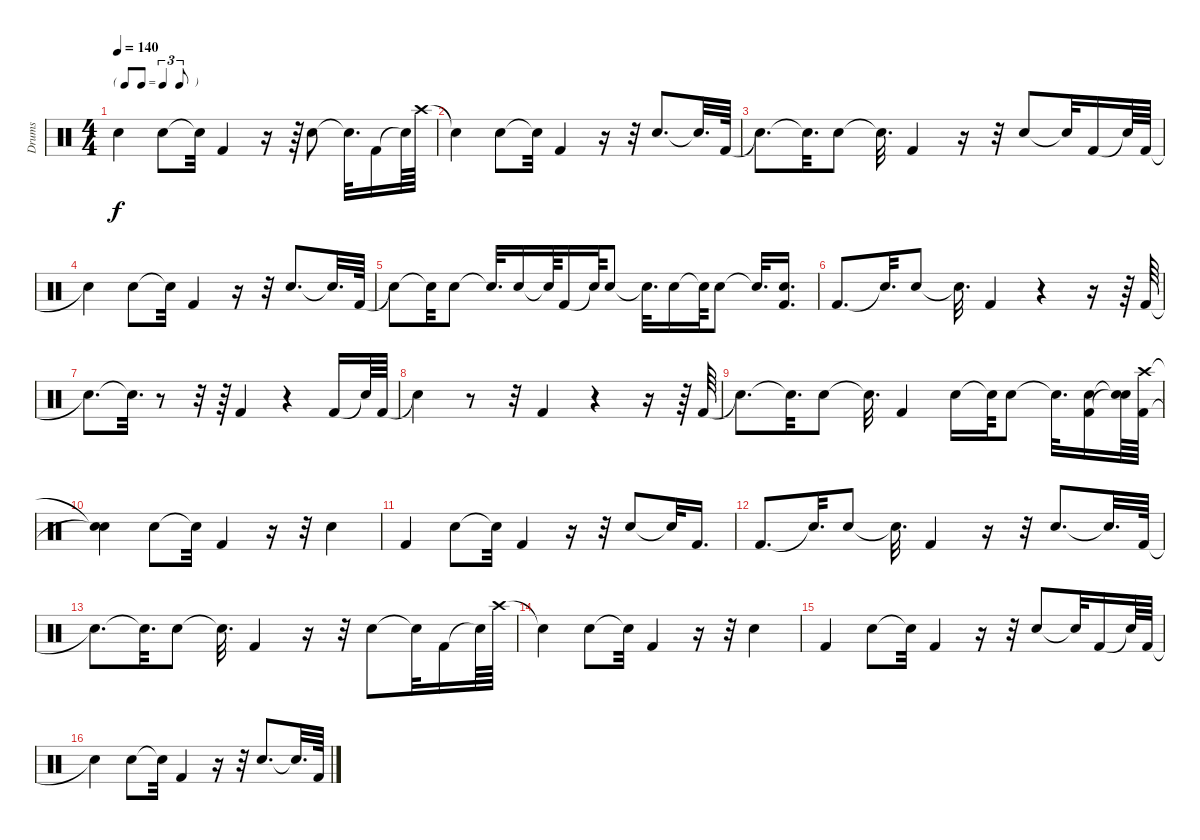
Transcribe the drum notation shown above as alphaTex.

\track ("Drums" "Drums") {instrument percussion}
\staff {score}
\articulation defaults
\ts (4 4)
\tf triplet8th
\tempo 140
\clef neutral
\ks c "Snare (hit)"{t}.4{dy f} "Snare (hit) 2".8 "Snare (hit)"{t}.32 "Kick (hit) 2".4
r.16 r.64 "Snare (hit) 2".8 "Snare (hit)"{t}.32{d} "Kick (hit) 2".16 "Snare (hit)"{t}.64 "Crash high (hit)".64 |
"Snare (hit)"{t}.4 "Snare (hit) 2".8 "Snare (hit)"{t}.32 "Kick (hit) 2".4 r.16 r.32 "Snare (hit) 2".8{d} "Snare (hit)"{t}.32{d} "Kick (hit) 2".64 |
"Snare (hit)"{t}.8{d} "Snare (hit)"{t}.32{d} "Snare (hit) 2".8 "Snare (hit)"{t}.32{d} "Kick (hit) 2".4 r.16 r.32 "Snare (hit) 2".8 "Snare (hit)"{t}.32 "Kick (hit) 2".16 "Snare (hit)"{t}.64 "Kick (hit) 2".64 |
"Snare (hit)"{t}.4 "Snare (hit) 2".8 "Snare (hit)"{t}.32 "Kick (hit) 2".4 r.16 r.32 "Snare (hit) 2".8{d} "Snare (hit)"{t}.32{d} "Kick (hit) 2".64 |
"Snare (hit)"{t}.8 "Snare (hit)"{t}.32 "Snare (hit) 2".8 "Snare (hit)"{t}.32{d} "Snare (hit) 2".16 "Snare (hit)"{t}.64 "Kick (hit) 2".16 "Snare (hit)"{t}.64 "Snare (hit) 2".8 "Snare (hit)"{t}.32{d} "Snare (hit) 2".16 "Snare (hit)"{t}.64 "Snare (hit) 2".8 "Snare (hit)"{t}.32{d} ("Kick (hit) 2" "Snare (hit) 2").16{d} |
"Kick (hit) 2".8{d} "Snare (hit)"{t}.32{d} "Snare (hit) 2".8 "Snare (hit)"{t}.32{d} "Kick (hit) 2".4 r.4 r.16 r.64 "Kick (hit) 2".64 |
"Snare (hit)"{t}.8{d} "Snare (hit)"{t}.32{d} r.8 r.32 r.64 "Kick (hit) 2".4 r.4 "Kick (hit) 2".16 "Snare (hit)"{t}.64 "Kick (hit) 2".64 |
"Snare (hit)"{t}.4 r.8 r.32 "Kick (hit) 2".4 r.4 r.16 r.64 "Kick (hit) 2".64 |
"Snare (hit)"{t}.8{d} "Snare (hit)"{t}.32{d} "Snare (hit) 2".8 "Snare (hit)"{t}.32{d} "Kick (hit) 2".4 "Snare (hit) 2".16 "Snare (hit)"{t}.64 "Snare (hit) 2".8 "Snare (hit)"{t}.32{d} ("Kick (hit) 2" "Snare (hit) 2").16 ("Snare (hit)"{t} "Snare (hit)"{t}).64 ("Kick (hit) 2" "Crash high (hit)").64 |
("Snare (hit)"{t} "Snare (hit)"{t}).4 "Snare (hit) 2".8 "Snare (hit)"{t}.32 "Kick (hit) 2".4 r.16 r.32 "Snare (hit) 2".4 |
"Kick (hit) 2".4 "Snare (hit) 2".8 "Snare (hit)"{t}.32 "Kick (hit) 2".4 r.16 r.32 "Snare (hit) 2".8 "Snare (hit)"{t}.32 "Kick (hit) 2".16{d} |
"Kick (hit) 2".8{d} "Snare (hit)"{t}.32{d} "Snare (hit) 2".8 "Snare (hit)"{t}.32{d} "Kick (hit) 2".4 r.16 r.32 "Snare (hit) 2".8{d} "Snare (hit)"{t}.32{d} "Kick (hit) 2".64 |
"Snare (hit)"{t}.8{d} "Snare (hit)"{t}.32{d} "Snare (hit) 2".8 "Snare (hit)"{t}.32{d} "Kick (hit) 2".4 r.16 r.32 "Snare (hit) 2".8 "Snare (hit)"{t}.32 "Kick (hit) 2".16 "Snare (hit)"{t}.64 "Crash high (hit)".64 |
"Snare (hit)"{t}.4 "Snare (hit) 2".8 "Snare (hit)"{t}.32 "Kick (hit) 2".4 r.16 r.32 "Snare (hit) 2".4 |
"Kick (hit) 2".4 "Snare (hit) 2".8 "Snare (hit)"{t}.32 "Kick (hit) 2".4 r.16 r.32 "Snare (hit) 2".8 "Snare (hit)"{t}.32 "Kick (hit) 2".16 "Snare (hit)"{t}.64 "Kick (hit) 2".64 |
"Snare (hit)"{t}.4 "Snare (hit) 2".8 "Snare (hit)"{t}.32 "Kick (hit) 2".4 r.16 r.32 "Snare (hit) 2".8{d} "Snare (hit)"{t}.32{d} "Kick (hit) 2".64
